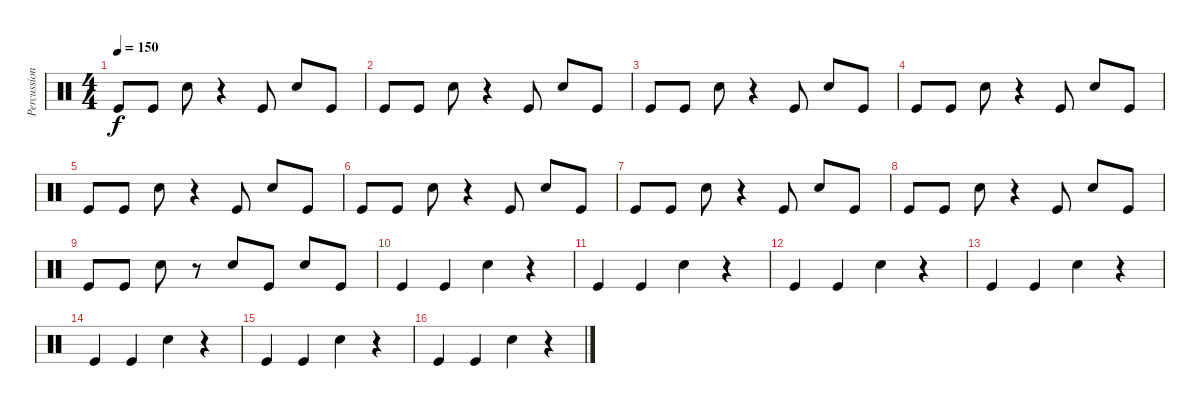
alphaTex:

\track ("Percussion" "Percussion") {instrument percussion}
\staff {score}
\articulation defaults
\ts (4 4)
\tempo 150
\clef neutral
\ks c "Kick (hit)".8{dy f} "Kick (hit)".8 "Snare (hit) 2".8
r.4 "Kick (hit)".8 "Snare (hit) 2".8 "Kick (hit)".8 |
"Kick (hit)".8 "Kick (hit)".8 "Snare (hit) 2".8 r.4 "Kick (hit)".8 "Snare (hit) 2".8 "Kick (hit)".8 |
"Kick (hit)".8 "Kick (hit)".8 "Snare (hit) 2".8 r.4 "Kick (hit)".8 "Snare (hit) 2".8 "Kick (hit)".8 |
"Kick (hit)".8 "Kick (hit)".8 "Snare (hit) 2".8 r.4 "Kick (hit)".8 "Snare (hit) 2".8 "Kick (hit)".8 |
"Kick (hit)".8 "Kick (hit)".8 "Snare (hit) 2".8 r.4 "Kick (hit)".8 "Snare (hit) 2".8 "Kick (hit)".8 |
"Kick (hit)".8 "Kick (hit)".8 "Snare (hit) 2".8 r.4 "Kick (hit)".8 "Snare (hit) 2".8 "Kick (hit)".8 |
"Kick (hit)".8 "Kick (hit)".8 "Snare (hit) 2".8 r.4 "Kick (hit)".8 "Snare (hit) 2".8 "Kick (hit)".8 |
"Kick (hit)".8 "Kick (hit)".8 "Snare (hit) 2".8 r.4 "Kick (hit)".8 "Snare (hit) 2".8 "Kick (hit)".8 |
"Kick (hit)".8 "Kick (hit)".8 "Snare (hit) 2".8 r.8 "Snare (hit) 2".8 "Kick (hit)".8 "Snare (hit) 2".8 "Kick (hit)".8 |
"Kick (hit)".4 "Kick (hit)".4 "Snare (hit) 2".4 r.4 |
"Kick (hit)".4 "Kick (hit)".4 "Snare (hit) 2".4 r.4 |
"Kick (hit)".4 "Kick (hit)".4 "Snare (hit) 2".4 r.4 |
"Kick (hit)".4 "Kick (hit)".4 "Snare (hit) 2".4 r.4 |
"Kick (hit)".4 "Kick (hit)".4 "Snare (hit) 2".4 r.4 |
"Kick (hit)".4 "Kick (hit)".4 "Snare (hit) 2".4 r.4 |
"Kick (hit)".4 "Kick (hit)".4 "Snare (hit) 2".4 r.4
